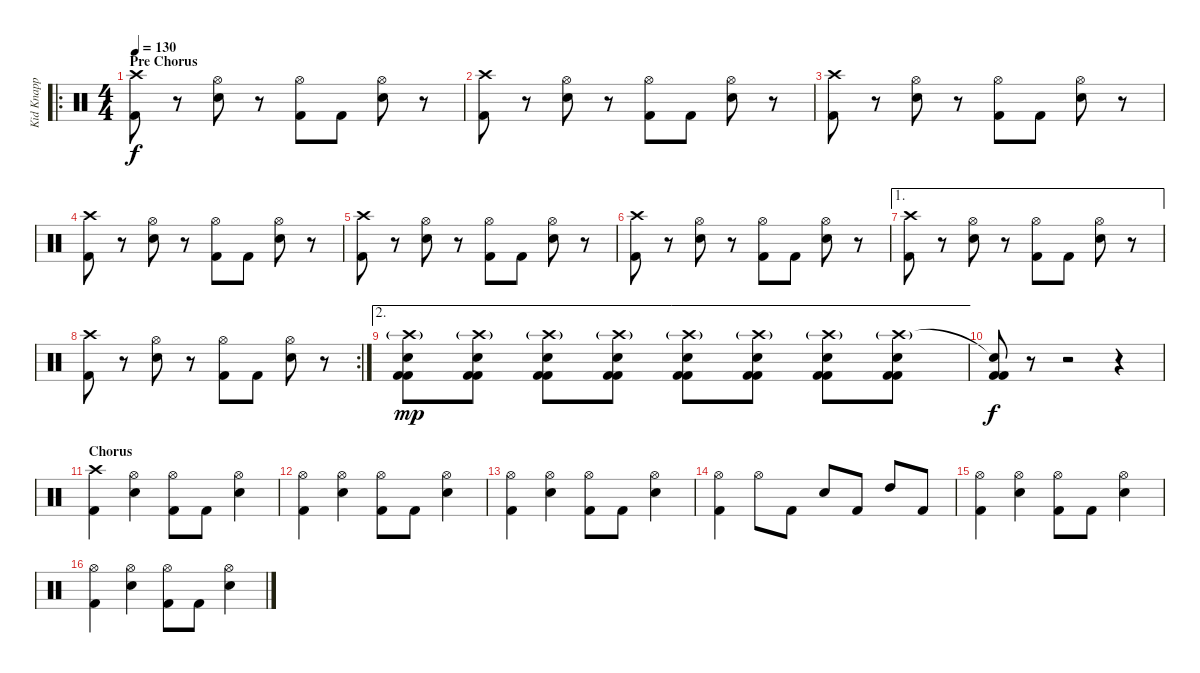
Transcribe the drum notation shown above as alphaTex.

\track ("Kid Knapp (Drums)" "Kid Knapp ") {instrument percussion}
\staff {score}
\articulation defaults
\ro
\ts (4 4)
\section ("" "Pre Chorus")
\tempo 130
\clef neutral
\ks c
("Crash high (hit)" "Kick (hit) 2").8{dy f} r.8 ("Hi-Hat (open)" "Electric Snare (hit)").8 r.8 ("Hi-Hat (open)" "Kick (hit) 2").8 "Kick (hit) 2".8 ("Hi-Hat (open)" "Electric Snare (hit)").8 r.8 |
("Crash high (hit)" "Kick (hit) 2").8 r.8 ("Hi-Hat (open)" "Electric Snare (hit)").8 r.8 ("Hi-Hat (open)" "Kick (hit) 2").8 "Kick (hit) 2".8 ("Hi-Hat (open)" "Electric Snare (hit)").8 r.8 |
("Crash high (hit)" "Kick (hit) 2").8 r.8 ("Hi-Hat (open)" "Electric Snare (hit)").8 r.8 ("Hi-Hat (open)" "Kick (hit) 2").8 "Kick (hit) 2".8 ("Hi-Hat (open)" "Electric Snare (hit)").8 r.8 |
("Crash high (hit)" "Kick (hit) 2").8 r.8 ("Hi-Hat (open)" "Electric Snare (hit)").8 r.8 ("Hi-Hat (open)" "Kick (hit) 2").8 "Kick (hit) 2".8 ("Hi-Hat (open)" "Electric Snare (hit)").8 r.8 |
("Crash high (hit)" "Kick (hit) 2").8 r.8 ("Hi-Hat (open)" "Electric Snare (hit)").8 r.8 ("Hi-Hat (open)" "Kick (hit) 2").8 "Kick (hit) 2".8 ("Hi-Hat (open)" "Electric Snare (hit)").8 r.8 |
("Crash high (hit)" "Kick (hit) 2").8 r.8 ("Hi-Hat (open)" "Electric Snare (hit)").8 r.8 ("Hi-Hat (open)" "Kick (hit) 2").8 "Kick (hit) 2".8 ("Hi-Hat (open)" "Electric Snare (hit)").8 r.8 |
\ae 1
("Crash high (hit)" "Kick (hit) 2").8 r.8 ("Hi-Hat (open)" "Electric Snare (hit)").8 r.8 ("Hi-Hat (open)" "Kick (hit) 2").8 "Kick (hit) 2".8 ("Hi-Hat (open)" "Electric Snare (hit)").8 r.8 |
\rc 2
("Crash high (hit)" "Kick (hit) 2").8 r.8 ("Hi-Hat (open)" "Electric Snare (hit)").8 r.8 ("Hi-Hat (open)" "Kick (hit) 2").8 "Kick (hit) 2".8 ("Hi-Hat (open)" "Electric Snare (hit)").8 r.8 |
\ae 2
("Crash high (hit)"{g} "Electric Snare (hit)" "Kick (hit) 2" "Kick (hit) 2").8{dy mp volume 7} ("Crash high (hit)"{g} "Electric Snare (hit)" "Kick (hit) 2" "Kick (hit) 2").8{volume 16} ("Crash high (hit)"{g} "Electric Snare (hit)" "Kick (hit) 2" "Kick (hit) 2").8 ("Crash high (hit)"{g} "Electric Snare (hit)" "Kick (hit) 2" "Kick (hit) 2").8 ("Crash high (hit)"{g} "Electric Snare (hit)" "Kick (hit) 2" "Kick (hit) 2").8 ("Crash high (hit)"{g} "Electric Snare (hit)" "Kick (hit) 2" "Kick (hit) 2").8 ("Crash high (hit)"{g} "Electric Snare (hit)" "Kick (hit) 2" "Kick (hit) 2").8 ("Crash high (hit)"{g} "Electric Snare (hit)" "Kick (hit) 2" "Kick (hit) 2").8 |
("Snare (hit)"{t} "Kick (hit) 2" "Kick (hit) 2").8{dy f} r.8 r.2 r.4 |
\section ("" "Chorus")
("Crash high (hit)" "Kick (hit) 2").4 ("Hi-Hat (open)" "Electric Snare (hit)").4 ("Hi-Hat (open)" "Kick (hit) 2").8 "Kick (hit) 2".8 ("Hi-Hat (open)" "Electric Snare (hit)").4 |
("Hi-Hat (open)" "Kick (hit) 2").4 ("Hi-Hat (open)" "Electric Snare (hit)").4 ("Hi-Hat (open)" "Kick (hit) 2").8 "Kick (hit) 2".8 ("Hi-Hat (open)" "Electric Snare (hit)").4 |
("Hi-Hat (open)" "Kick (hit) 2").4 ("Hi-Hat (open)" "Electric Snare (hit)").4 ("Hi-Hat (open)" "Kick (hit) 2").8 "Kick (hit) 2".8 ("Hi-Hat (open)" "Electric Snare (hit)").4 |
("Hi-Hat (open)" "Kick (hit) 2").4 "Hi-Hat (open)".8 "Kick (hit) 2".8 "Electric Snare (hit)".8 "Kick (hit) 2".8 "High Tom (hit)".8 "Kick (hit) 2".8 |
("Hi-Hat (open)" "Kick (hit) 2").4 ("Hi-Hat (open)" "Electric Snare (hit)").4 ("Hi-Hat (open)" "Kick (hit) 2").8 "Kick (hit) 2".8 ("Hi-Hat (open)" "Electric Snare (hit)").4 |
("Hi-Hat (open)" "Kick (hit) 2").4 ("Hi-Hat (open)" "Electric Snare (hit)").4 ("Hi-Hat (open)" "Kick (hit) 2").8 "Kick (hit) 2".8 ("Hi-Hat (open)" "Electric Snare (hit)").4
